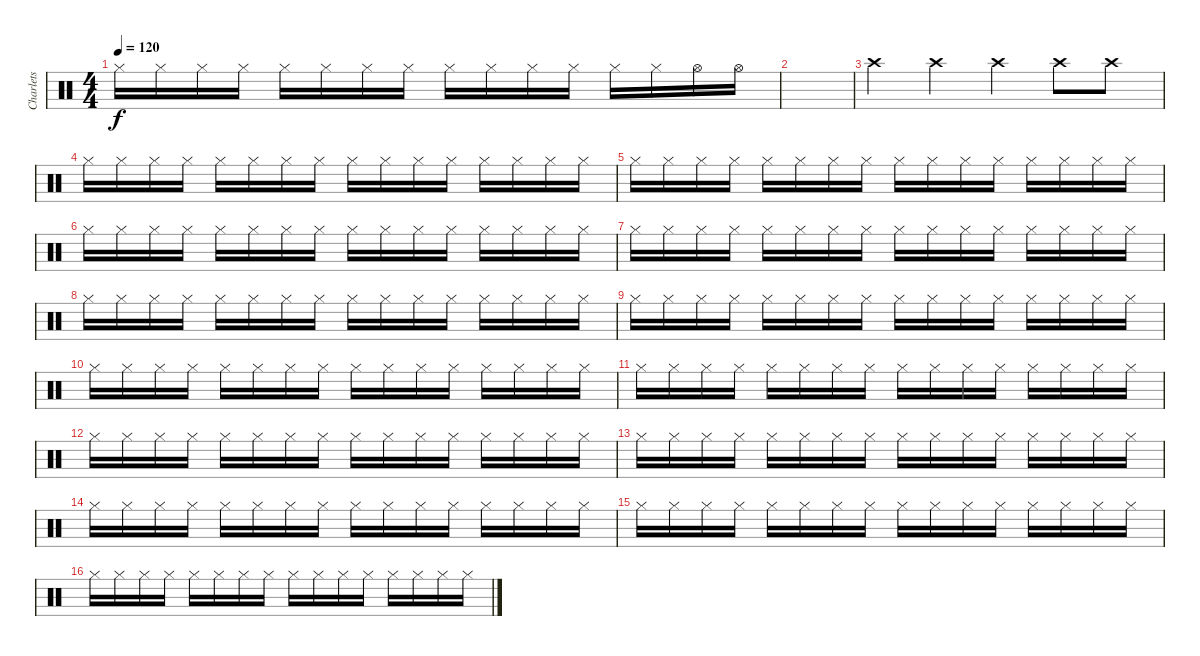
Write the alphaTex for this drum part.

\track ("Charlets" "Charlets") {instrument percussion}
\staff {score}
\articulation defaults
\ts (4 4)
\tempo 120
\clef neutral
\ks c "Hi-Hat (closed)".16{dy f} "Hi-Hat (closed)".16 "Hi-Hat (closed)".16 "Hi-Hat (closed)".16 "Hi-Hat (closed)".16 "Hi-Hat (closed)".16 "Hi-Hat (closed)".16 "Hi-Hat (closed)".16 "Hi-Hat (closed)".16 "Hi-Hat (closed)".16 "Hi-Hat (closed)".16 "Hi-Hat (closed)".16 "Hi-Hat (closed)".16 "Hi-Hat (closed)".16 "Hi-Hat (open)".16 "Hi-Hat (open)".16
|
|
"Crash high (hit)".4 "Crash high (hit)".4 "Crash high (hit)".4 "Crash high (hit)".8 "Crash high (hit)".8 |
"Hi-Hat (closed)".16 "Hi-Hat (closed)".16 "Hi-Hat (closed)".16 "Hi-Hat (closed)".16 "Hi-Hat (closed)".16 "Hi-Hat (closed)".16 "Hi-Hat (closed)".16 "Hi-Hat (closed)".16 "Hi-Hat (closed)".16 "Hi-Hat (closed)".16 "Hi-Hat (closed)".16 "Hi-Hat (closed)".16 "Hi-Hat (closed)".16 "Hi-Hat (closed)".16 "Hi-Hat (closed)".16 "Hi-Hat (closed)".16 |
"Hi-Hat (closed)".16 "Hi-Hat (closed)".16 "Hi-Hat (closed)".16 "Hi-Hat (closed)".16 "Hi-Hat (closed)".16 "Hi-Hat (closed)".16 "Hi-Hat (closed)".16 "Hi-Hat (closed)".16 "Hi-Hat (closed)".16 "Hi-Hat (closed)".16 "Hi-Hat (closed)".16 "Hi-Hat (closed)".16 "Hi-Hat (closed)".16 "Hi-Hat (closed)".16 "Hi-Hat (closed)".16 "Hi-Hat (closed)".16 |
"Hi-Hat (closed)".16 "Hi-Hat (closed)".16 "Hi-Hat (closed)".16 "Hi-Hat (closed)".16 "Hi-Hat (closed)".16 "Hi-Hat (closed)".16 "Hi-Hat (closed)".16 "Hi-Hat (closed)".16 "Hi-Hat (closed)".16 "Hi-Hat (closed)".16 "Hi-Hat (closed)".16 "Hi-Hat (closed)".16 "Hi-Hat (closed)".16 "Hi-Hat (closed)".16 "Hi-Hat (closed)".16 "Hi-Hat (closed)".16 |
"Hi-Hat (closed)".16 "Hi-Hat (closed)".16 "Hi-Hat (closed)".16 "Hi-Hat (closed)".16 "Hi-Hat (closed)".16 "Hi-Hat (closed)".16 "Hi-Hat (closed)".16 "Hi-Hat (closed)".16 "Hi-Hat (closed)".16 "Hi-Hat (closed)".16 "Hi-Hat (closed)".16 "Hi-Hat (closed)".16 "Hi-Hat (closed)".16 "Hi-Hat (closed)".16 "Hi-Hat (closed)".16 "Hi-Hat (closed)".16 |
"Hi-Hat (closed)".16 "Hi-Hat (closed)".16 "Hi-Hat (closed)".16 "Hi-Hat (closed)".16 "Hi-Hat (closed)".16 "Hi-Hat (closed)".16 "Hi-Hat (closed)".16 "Hi-Hat (closed)".16 "Hi-Hat (closed)".16 "Hi-Hat (closed)".16 "Hi-Hat (closed)".16 "Hi-Hat (closed)".16 "Hi-Hat (closed)".16 "Hi-Hat (closed)".16 "Hi-Hat (closed)".16 "Hi-Hat (closed)".16 |
"Hi-Hat (closed)".16 "Hi-Hat (closed)".16 "Hi-Hat (closed)".16 "Hi-Hat (closed)".16 "Hi-Hat (closed)".16 "Hi-Hat (closed)".16 "Hi-Hat (closed)".16 "Hi-Hat (closed)".16 "Hi-Hat (closed)".16 "Hi-Hat (closed)".16 "Hi-Hat (closed)".16 "Hi-Hat (closed)".16 "Hi-Hat (closed)".16 "Hi-Hat (closed)".16 "Hi-Hat (closed)".16 "Hi-Hat (closed)".16 |
"Hi-Hat (closed)".16 "Hi-Hat (closed)".16 "Hi-Hat (closed)".16 "Hi-Hat (closed)".16 "Hi-Hat (closed)".16 "Hi-Hat (closed)".16 "Hi-Hat (closed)".16 "Hi-Hat (closed)".16 "Hi-Hat (closed)".16 "Hi-Hat (closed)".16 "Hi-Hat (closed)".16 "Hi-Hat (closed)".16 "Hi-Hat (closed)".16 "Hi-Hat (closed)".16 "Hi-Hat (closed)".16 "Hi-Hat (closed)".16 |
"Hi-Hat (closed)".16 "Hi-Hat (closed)".16 "Hi-Hat (closed)".16 "Hi-Hat (closed)".16 "Hi-Hat (closed)".16 "Hi-Hat (closed)".16 "Hi-Hat (closed)".16 "Hi-Hat (closed)".16 "Hi-Hat (closed)".16 "Hi-Hat (closed)".16 "Hi-Hat (closed)".16 "Hi-Hat (closed)".16 "Hi-Hat (closed)".16 "Hi-Hat (closed)".16 "Hi-Hat (closed)".16 "Hi-Hat (closed)".16 |
"Hi-Hat (closed)".16 "Hi-Hat (closed)".16 "Hi-Hat (closed)".16 "Hi-Hat (closed)".16 "Hi-Hat (closed)".16 "Hi-Hat (closed)".16 "Hi-Hat (closed)".16 "Hi-Hat (closed)".16 "Hi-Hat (closed)".16 "Hi-Hat (closed)".16 "Hi-Hat (closed)".16 "Hi-Hat (closed)".16 "Hi-Hat (closed)".16 "Hi-Hat (closed)".16 "Hi-Hat (closed)".16 "Hi-Hat (closed)".16 |
"Hi-Hat (closed)".16 "Hi-Hat (closed)".16 "Hi-Hat (closed)".16 "Hi-Hat (closed)".16 "Hi-Hat (closed)".16 "Hi-Hat (closed)".16 "Hi-Hat (closed)".16 "Hi-Hat (closed)".16 "Hi-Hat (closed)".16 "Hi-Hat (closed)".16 "Hi-Hat (closed)".16 "Hi-Hat (closed)".16 "Hi-Hat (closed)".16 "Hi-Hat (closed)".16 "Hi-Hat (closed)".16 "Hi-Hat (closed)".16 |
"Hi-Hat (closed)".16 "Hi-Hat (closed)".16 "Hi-Hat (closed)".16 "Hi-Hat (closed)".16 "Hi-Hat (closed)".16 "Hi-Hat (closed)".16 "Hi-Hat (closed)".16 "Hi-Hat (closed)".16 "Hi-Hat (closed)".16 "Hi-Hat (closed)".16 "Hi-Hat (closed)".16 "Hi-Hat (closed)".16 "Hi-Hat (closed)".16 "Hi-Hat (closed)".16 "Hi-Hat (closed)".16 "Hi-Hat (closed)".16 |
"Hi-Hat (closed)".16 "Hi-Hat (closed)".16 "Hi-Hat (closed)".16 "Hi-Hat (closed)".16 "Hi-Hat (closed)".16 "Hi-Hat (closed)".16 "Hi-Hat (closed)".16 "Hi-Hat (closed)".16 "Hi-Hat (closed)".16 "Hi-Hat (closed)".16 "Hi-Hat (closed)".16 "Hi-Hat (closed)".16 "Hi-Hat (closed)".16 "Hi-Hat (closed)".16 "Hi-Hat (closed)".16 "Hi-Hat (closed)".16 |
"Hi-Hat (closed)".16 "Hi-Hat (closed)".16 "Hi-Hat (closed)".16 "Hi-Hat (closed)".16 "Hi-Hat (closed)".16 "Hi-Hat (closed)".16 "Hi-Hat (closed)".16 "Hi-Hat (closed)".16 "Hi-Hat (closed)".16 "Hi-Hat (closed)".16 "Hi-Hat (closed)".16 "Hi-Hat (closed)".16 "Hi-Hat (closed)".16 "Hi-Hat (closed)".16 "Hi-Hat (closed)".16 "Hi-Hat (closed)".16
